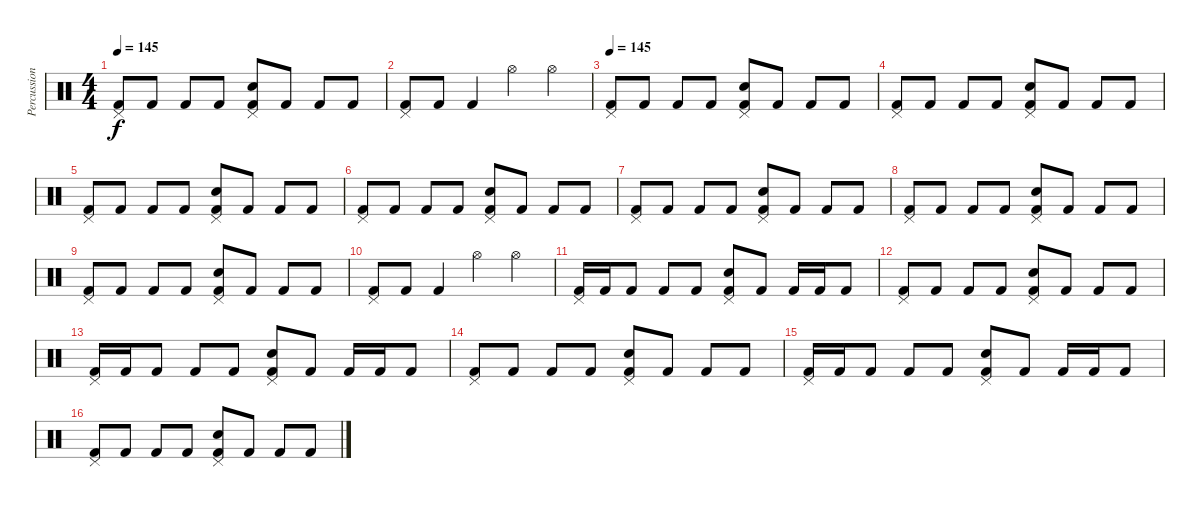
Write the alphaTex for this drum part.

\track ("Percussion" "Percussion") {instrument percussion}
\staff {score}
\articulation defaults
\ts (4 4)
\tempo 145
\clef neutral
\ks c
("Pedal Hi-Hat (hit)" "Kick (hit) 2").8{dy f} "Kick (hit) 2".8 "Kick (hit) 2".8 "Kick (hit) 2".8 ("Electric Snare (hit)" "Pedal Hi-Hat (hit)" "Kick (hit) 2").8 "Kick (hit) 2".8 "Kick (hit) 2".8 "Kick (hit) 2".8 |
("Pedal Hi-Hat (hit)" "Kick (hit) 2").8 "Kick (hit) 2".8 "Kick (hit) 2".4 "Hi-Hat (open)".4 "Hi-Hat (open)".4 |
\tempo 145
("Pedal Hi-Hat (hit)" "Kick (hit) 2").8 "Kick (hit) 2".8 "Kick (hit) 2".8 "Kick (hit) 2".8 ("Electric Snare (hit)" "Pedal Hi-Hat (hit)" "Kick (hit) 2").8 "Kick (hit) 2".8 "Kick (hit) 2".8 "Kick (hit) 2".8 |
("Pedal Hi-Hat (hit)" "Kick (hit) 2").8 "Kick (hit) 2".8 "Kick (hit) 2".8 "Kick (hit) 2".8 ("Electric Snare (hit)" "Pedal Hi-Hat (hit)" "Kick (hit) 2").8 "Kick (hit) 2".8 "Kick (hit) 2".8 "Kick (hit) 2".8 |
("Pedal Hi-Hat (hit)" "Kick (hit) 2").8 "Kick (hit) 2".8 "Kick (hit) 2".8 "Kick (hit) 2".8 ("Electric Snare (hit)" "Pedal Hi-Hat (hit)" "Kick (hit) 2").8 "Kick (hit) 2".8 "Kick (hit) 2".8 "Kick (hit) 2".8 |
("Pedal Hi-Hat (hit)" "Kick (hit) 2").8 "Kick (hit) 2".8 "Kick (hit) 2".8 "Kick (hit) 2".8 ("Electric Snare (hit)" "Pedal Hi-Hat (hit)" "Kick (hit) 2").8 "Kick (hit) 2".8 "Kick (hit) 2".8 "Kick (hit) 2".8 |
("Pedal Hi-Hat (hit)" "Kick (hit) 2").8 "Kick (hit) 2".8 "Kick (hit) 2".8 "Kick (hit) 2".8 ("Electric Snare (hit)" "Pedal Hi-Hat (hit)" "Kick (hit) 2").8 "Kick (hit) 2".8 "Kick (hit) 2".8 "Kick (hit) 2".8 |
("Pedal Hi-Hat (hit)" "Kick (hit) 2").8 "Kick (hit) 2".8 "Kick (hit) 2".8 "Kick (hit) 2".8 ("Electric Snare (hit)" "Pedal Hi-Hat (hit)" "Kick (hit) 2").8 "Kick (hit) 2".8 "Kick (hit) 2".8 "Kick (hit) 2".8 |
("Pedal Hi-Hat (hit)" "Kick (hit) 2").8 "Kick (hit) 2".8 "Kick (hit) 2".8 "Kick (hit) 2".8 ("Electric Snare (hit)" "Pedal Hi-Hat (hit)" "Kick (hit) 2").8 "Kick (hit) 2".8 "Kick (hit) 2".8 "Kick (hit) 2".8 |
("Pedal Hi-Hat (hit)" "Kick (hit) 2").8 "Kick (hit) 2".8 "Kick (hit) 2".4 "Hi-Hat (open)".4 "Hi-Hat (open)".4 |
("Pedal Hi-Hat (hit)" "Kick (hit) 2").16 "Kick (hit) 2".16 "Kick (hit) 2".8 "Kick (hit) 2".8 "Kick (hit) 2".8 ("Electric Snare (hit)" "Pedal Hi-Hat (hit)" "Kick (hit) 2").8 "Kick (hit) 2".8 "Kick (hit) 2".16 "Kick (hit) 2".16 "Kick (hit) 2".8 |
("Pedal Hi-Hat (hit)" "Kick (hit) 2").8 "Kick (hit) 2".8 "Kick (hit) 2".8 "Kick (hit) 2".8 ("Electric Snare (hit)" "Pedal Hi-Hat (hit)" "Kick (hit) 2").8 "Kick (hit) 2".8 "Kick (hit) 2".8 "Kick (hit) 2".8 |
("Pedal Hi-Hat (hit)" "Kick (hit) 2").16 "Kick (hit) 2".16 "Kick (hit) 2".8 "Kick (hit) 2".8 "Kick (hit) 2".8 ("Electric Snare (hit)" "Pedal Hi-Hat (hit)" "Kick (hit) 2").8 "Kick (hit) 2".8 "Kick (hit) 2".16 "Kick (hit) 2".16 "Kick (hit) 2".8 |
("Pedal Hi-Hat (hit)" "Kick (hit) 2").8 "Kick (hit) 2".8 "Kick (hit) 2".8 "Kick (hit) 2".8 ("Electric Snare (hit)" "Pedal Hi-Hat (hit)" "Kick (hit) 2").8 "Kick (hit) 2".8 "Kick (hit) 2".8 "Kick (hit) 2".8 |
("Pedal Hi-Hat (hit)" "Kick (hit) 2").16 "Kick (hit) 2".16 "Kick (hit) 2".8 "Kick (hit) 2".8 "Kick (hit) 2".8 ("Electric Snare (hit)" "Pedal Hi-Hat (hit)" "Kick (hit) 2").8 "Kick (hit) 2".8 "Kick (hit) 2".16 "Kick (hit) 2".16 "Kick (hit) 2".8 |
("Pedal Hi-Hat (hit)" "Kick (hit) 2").8 "Kick (hit) 2".8 "Kick (hit) 2".8 "Kick (hit) 2".8 ("Electric Snare (hit)" "Pedal Hi-Hat (hit)" "Kick (hit) 2").8 "Kick (hit) 2".8 "Kick (hit) 2".8 "Kick (hit) 2".8
